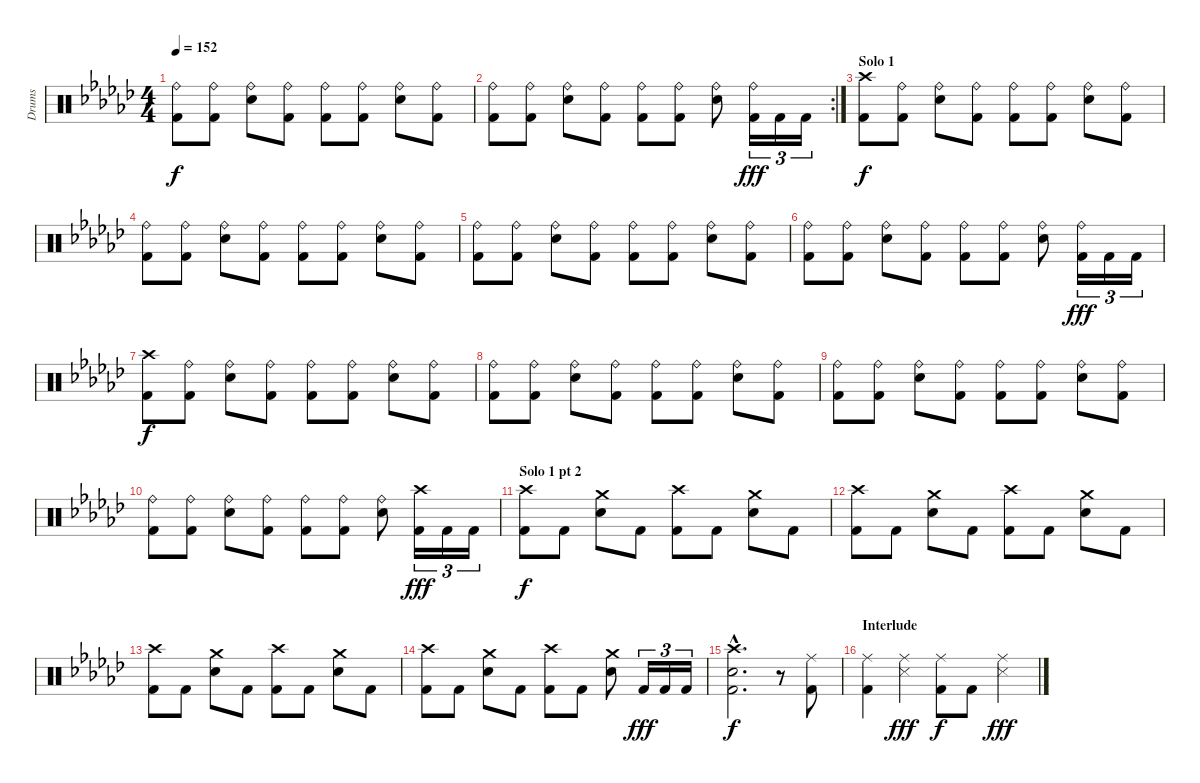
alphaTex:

\track ("Drums" "Drums") {instrument percussion}
\staff {score}
\articulation defaults
\ts (4 4)
\tempo 152
\clef neutral
\ks gb
("Ride (bell)" "Kick (hit) 2").8{dy f} ("Ride (bell)" "Kick (hit) 2").8 ("Ride (bell)" "Electric Snare (hit)").8 ("Ride (bell)" "Kick (hit) 2").8 ("Ride (bell)" "Kick (hit) 2").8 ("Ride (bell)" "Kick (hit) 2").8 ("Ride (bell)" "Electric Snare (hit)").8 ("Ride (bell)" "Kick (hit) 2").8 |
\rc 2
("Ride (bell)" "Kick (hit) 2").8 ("Ride (bell)" "Kick (hit) 2").8 ("Ride (bell)" "Electric Snare (hit)").8 ("Ride (bell)" "Kick (hit) 2").8 ("Ride (bell)" "Kick (hit) 2").8 ("Ride (bell)" "Kick (hit) 2").8 ("Ride (bell)" "Electric Snare (hit)").8 ("Ride (bell)" "Kick (hit) 2").16{tu (3 2) dy fff} "Kick (hit) 2".16{tu (3 2)} "Kick (hit) 2".16{tu (3 2)} |
\section ("" "Solo 1")
("Crash high (hit)" "Kick (hit) 2").8{dy f} ("Ride (bell)" "Kick (hit) 2").8 ("Ride (bell)" "Electric Snare (hit)").8 ("Ride (bell)" "Kick (hit) 2").8 ("Ride (bell)" "Kick (hit) 2").8 ("Ride (bell)" "Kick (hit) 2").8 ("Ride (bell)" "Electric Snare (hit)").8 ("Ride (bell)" "Kick (hit) 2").8 |
("Ride (bell)" "Kick (hit) 2").8 ("Ride (bell)" "Kick (hit) 2").8 ("Ride (bell)" "Electric Snare (hit)").8 ("Ride (bell)" "Kick (hit) 2").8 ("Ride (bell)" "Kick (hit) 2").8 ("Ride (bell)" "Kick (hit) 2").8 ("Ride (bell)" "Electric Snare (hit)").8 ("Ride (bell)" "Kick (hit) 2").8 |
("Ride (bell)" "Kick (hit) 2").8 ("Ride (bell)" "Kick (hit) 2").8 ("Ride (bell)" "Electric Snare (hit)").8 ("Ride (bell)" "Kick (hit) 2").8 ("Ride (bell)" "Kick (hit) 2").8 ("Ride (bell)" "Kick (hit) 2").8 ("Ride (bell)" "Electric Snare (hit)").8 ("Ride (bell)" "Kick (hit) 2").8 |
("Ride (bell)" "Kick (hit) 2").8 ("Ride (bell)" "Kick (hit) 2").8 ("Ride (bell)" "Electric Snare (hit)").8 ("Ride (bell)" "Kick (hit) 2").8 ("Ride (bell)" "Kick (hit) 2").8 ("Ride (bell)" "Kick (hit) 2").8 ("Ride (bell)" "Electric Snare (hit)").8 ("Ride (bell)" "Kick (hit) 2").16{tu (3 2) dy fff} "Kick (hit) 2".16{tu (3 2)} "Kick (hit) 2".16{tu (3 2)} |
("Crash high (hit)" "Kick (hit) 2").8{dy f} ("Ride (bell)" "Kick (hit) 2").8 ("Ride (bell)" "Electric Snare (hit)").8 ("Ride (bell)" "Kick (hit) 2").8 ("Ride (bell)" "Kick (hit) 2").8 ("Ride (bell)" "Kick (hit) 2").8 ("Ride (bell)" "Electric Snare (hit)").8 ("Ride (bell)" "Kick (hit) 2").8 |
("Ride (bell)" "Kick (hit) 2").8 ("Ride (bell)" "Kick (hit) 2").8 ("Ride (bell)" "Electric Snare (hit)").8 ("Ride (bell)" "Kick (hit) 2").8 ("Ride (bell)" "Kick (hit) 2").8 ("Ride (bell)" "Kick (hit) 2").8 ("Ride (bell)" "Electric Snare (hit)").8 ("Ride (bell)" "Kick (hit) 2").8 |
("Ride (bell)" "Kick (hit) 2").8 ("Ride (bell)" "Kick (hit) 2").8 ("Ride (bell)" "Electric Snare (hit)").8 ("Ride (bell)" "Kick (hit) 2").8 ("Ride (bell)" "Kick (hit) 2").8 ("Ride (bell)" "Kick (hit) 2").8 ("Ride (bell)" "Electric Snare (hit)").8 ("Ride (bell)" "Kick (hit) 2").8 |
("Ride (bell)" "Kick (hit) 2").8 ("Ride (bell)" "Kick (hit) 2").8 ("Ride (bell)" "Electric Snare (hit)").8 ("Ride (bell)" "Kick (hit) 2").8 ("Ride (bell)" "Kick (hit) 2").8 ("Ride (bell)" "Kick (hit) 2").8 ("Ride (bell)" "Electric Snare (hit)").8 ("Crash high (hit)" "Kick (hit) 2").16{tu (3 2) dy fff} "Kick (hit) 2".16{tu (3 2)} "Kick (hit) 2".16{tu (3 2)} |
\section ("" "Solo 1 pt 2")
("Crash high (hit)" "Kick (hit) 2").8{dy f} "Kick (hit) 2".8 ("Crash medium (hit)" "Electric Snare (hit)").8 "Kick (hit) 2".8 ("Crash high (hit)" "Kick (hit) 2").8 "Kick (hit) 2".8 ("Crash medium (hit)" "Electric Snare (hit)").8 "Kick (hit) 2".8 |
("Crash high (hit)" "Kick (hit) 2").8 "Kick (hit) 2".8 ("Crash medium (hit)" "Electric Snare (hit)").8 "Kick (hit) 2".8 ("Crash high (hit)" "Kick (hit) 2").8 "Kick (hit) 2".8 ("Crash medium (hit)" "Electric Snare (hit)").8 "Kick (hit) 2".8 |
("Crash high (hit)" "Kick (hit) 2").8 "Kick (hit) 2".8 ("Crash medium (hit)" "Electric Snare (hit)").8 "Kick (hit) 2".8 ("Crash high (hit)" "Kick (hit) 2").8 "Kick (hit) 2".8 ("Crash medium (hit)" "Electric Snare (hit)").8 "Kick (hit) 2".8 |
("Crash high (hit)" "Kick (hit) 2").8 "Kick (hit) 2".8 ("Crash medium (hit)" "Electric Snare (hit)").8 "Kick (hit) 2".8 ("Crash high (hit)" "Kick (hit) 2").8 "Kick (hit) 2".8 ("Crash medium (hit)" "Electric Snare (hit)").8 "Kick (hit) 2".16{tu (3 2) dy fff} "Kick (hit) 2".16{tu (3 2)} "Kick (hit) 2".16{tu (3 2)} |
("Crash high (hit)"{hac} "Electric Snare (hit)"{hac} "Kick (hit) 2"{hac}).2{d dy f} r.8 ("Ride (middle)" "Kick (hit) 2").8 |
\section ("" "Interlude")
("Ride (middle)" "Kick (hit) 2").4 ("Ride (middle)" "Snare (side stick) 3").4{dy fff} ("Ride (middle)" "Kick (hit) 2").8{dy f} "Kick (hit) 2".8 ("Ride (middle)" "Snare (side stick) 3").4{dy fff}
